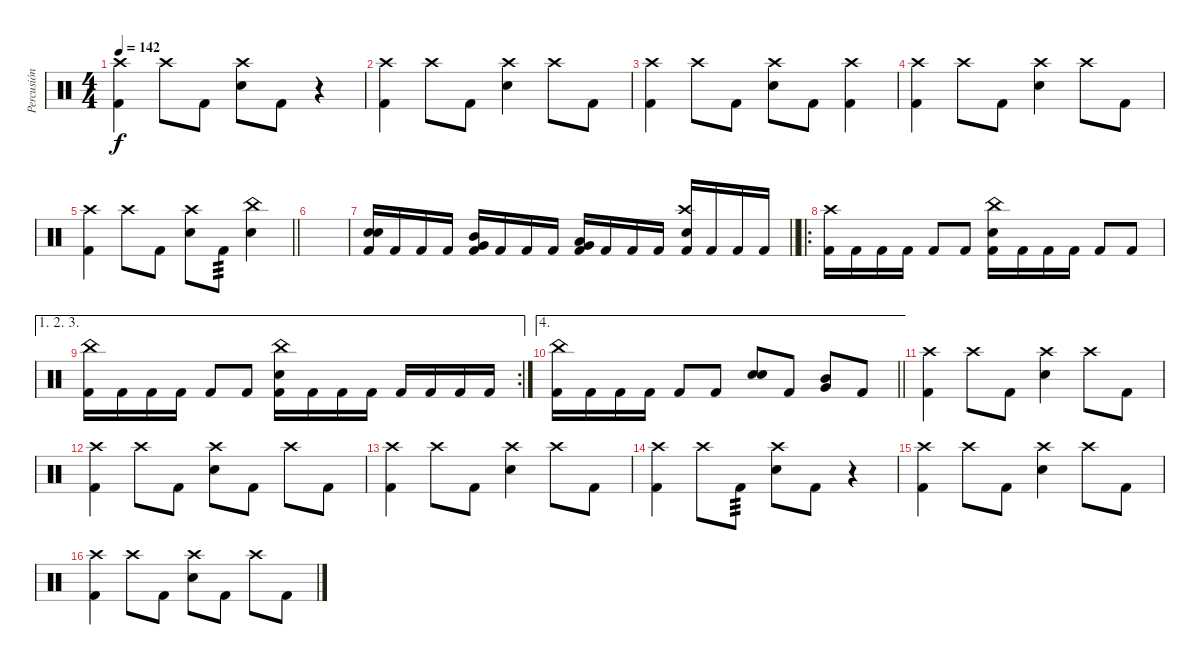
\track ("Percusión" "Percusión") {instrument percussion}
\staff
\articulation defaults
\ts (4 4)
\tempo 142
\clef neutral
\ks c
("Kick (hit) 2" "Crash high (hit)").4{dy f} "Crash high (hit)".8 "Kick (hit) 2".8 ("Crash high (hit)" "Electric Snare (hit)").8 "Kick (hit) 2".8 r.4 |
("Kick (hit) 2" "Crash high (hit)").4 "Crash high (hit)".8 "Kick (hit) 2".8 ("Crash high (hit)" "Electric Snare (hit)").4 "Crash high (hit)".8 "Kick (hit) 2".8 |
("Kick (hit) 2" "Crash high (hit)").4 "Crash high (hit)".8 "Kick (hit) 2".8 ("Crash high (hit)" "Electric Snare (hit)").8 "Kick (hit) 2".8 ("Kick (hit) 2" "Crash high (hit)").4 |
("Kick (hit) 2" "Crash high (hit)").4 "Crash high (hit)".8 "Kick (hit) 2".8 ("Crash high (hit)" "Electric Snare (hit)").4 "Crash high (hit)".8 "Kick (hit) 2".8 |
\barLineRight lightlight
("Kick (hit) 2" "Crash high (hit)").4 "Crash high (hit)".8 "Kick (hit) 2".8 ("Crash high (hit)" "Electric Snare (hit)").8 "Kick (hit) 2".8{tp 3} ("China (hit)" "Electric Snare (hit)").4 |
\section ("" "")
|
\barLineRight lightlight
("Kick (hit) 2" "Electric Snare (hit)" "Snare (hit) 2").16 "Kick (hit) 2".16 "Kick (hit) 2".16 "Kick (hit) 2".16 ("Kick (hit) 2" "Mid Tom (hit)" "Very Low Tom (hit)").16 "Kick (hit) 2".16 "Kick (hit) 2".16 "Kick (hit) 2".16 ("Kick (hit) 2" "Low Tom (hit)" "Very Low Tom (hit)").16 "Kick (hit) 2".16 "Kick (hit) 2".16 "Kick (hit) 2".16 ("Kick (hit) 2" "Crash high (hit)" "Electric Snare (hit)").16 "Kick (hit) 2".16 "Kick (hit) 2".16 "Kick (hit) 2".16 |
\ro
\section ("" "")
("Kick (hit) 2" "Crash high (hit)").16 "Kick (hit) 2".16 "Kick (hit) 2".16 "Kick (hit) 2".16 "Kick (hit) 2".8 "Kick (hit) 2".8 ("Kick (hit) 2" "China (hit)" "Electric Snare (hit)").16 "Kick (hit) 2".16 "Kick (hit) 2".16 "Kick (hit) 2".16 "Kick (hit) 2".8 "Kick (hit) 2".8 |
\ae (1 2 3)
\rc 2
("Kick (hit) 2" "China (hit)").16 "Kick (hit) 2".16 "Kick (hit) 2".16 "Kick (hit) 2".16 "Kick (hit) 2".8 "Kick (hit) 2".8 ("Kick (hit) 2" "China (hit)" "Electric Snare (hit)").16 "Kick (hit) 2".16 "Kick (hit) 2".16 "Kick (hit) 2".16 "Kick (hit) 2".16 "Kick (hit) 2".16 "Kick (hit) 2".16 "Kick (hit) 2".16 |
\ae 4
\barLineRight lightlight
("Kick (hit) 2" "China (hit)").16 "Kick (hit) 2".16 "Kick (hit) 2".16 "Kick (hit) 2".16 "Kick (hit) 2".8 "Kick (hit) 2".8 ("Electric Snare (hit)" "Electric Snare (hit)").8 "Kick (hit) 2".8 ("Mid Tom (hit)" "Very Low Tom (hit)").8 "Kick (hit) 2".8 |
\section ("" "")
("Kick (hit) 2" "Crash high (hit)").4 "Crash high (hit)".8 "Kick (hit) 2".8 ("Crash high (hit)" "Electric Snare (hit)").4 "Crash high (hit)".8 "Kick (hit) 2".8 |
("Kick (hit) 2" "Crash high (hit)").4 "Crash high (hit)".8 "Kick (hit) 2".8 ("Crash high (hit)" "Electric Snare (hit)").8 "Kick (hit) 2".8 "Crash high (hit)".8 "Kick (hit) 2".8 |
("Kick (hit) 2" "Crash high (hit)").4 "Crash high (hit)".8 "Kick (hit) 2".8 ("Crash high (hit)" "Electric Snare (hit)").4 "Crash high (hit)".8 "Kick (hit) 2".8 |
("Kick (hit) 2" "Crash high (hit)").4 "Crash high (hit)".8 "Kick (hit) 2".8{tp 3} ("Crash high (hit)" "Electric Snare (hit)").8 "Kick (hit) 2".8 r.4 |
("Kick (hit) 2" "Crash high (hit)").4 "Crash high (hit)".8 "Kick (hit) 2".8 ("Crash high (hit)" "Electric Snare (hit)").4 "Crash high (hit)".8 "Kick (hit) 2".8 |
("Kick (hit) 2" "Crash high (hit)").4 "Crash high (hit)".8 "Kick (hit) 2".8 ("Crash high (hit)" "Electric Snare (hit)").8 "Kick (hit) 2".8 "Crash high (hit)".8 "Kick (hit) 2".8
